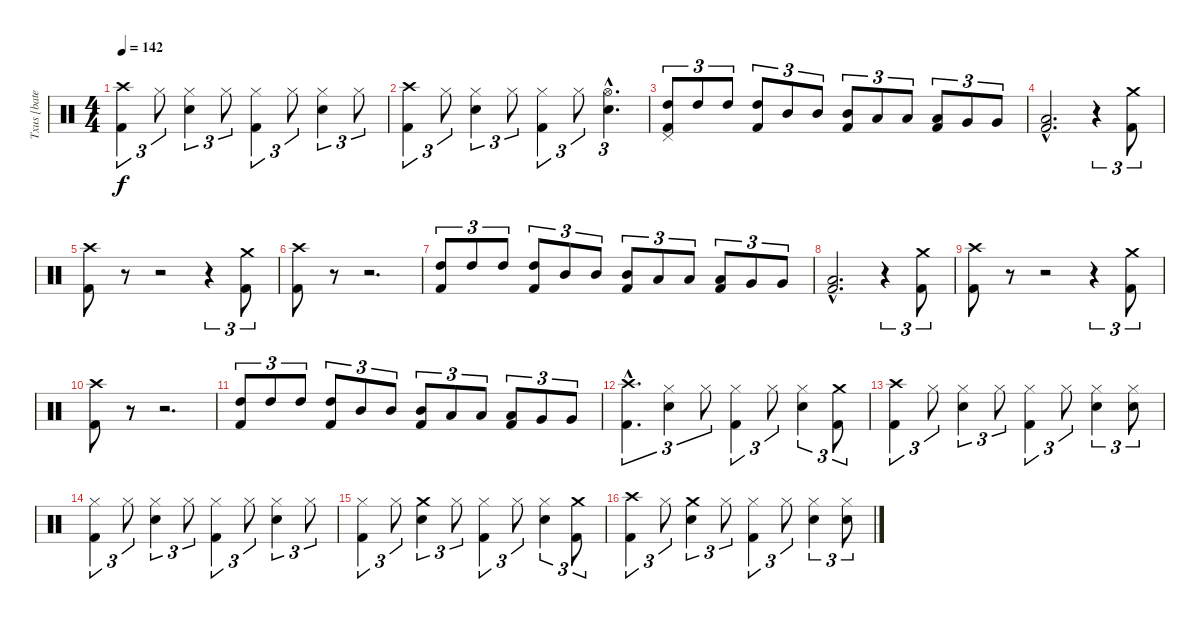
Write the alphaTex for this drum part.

\track ("Txus [bateria]" "Txus [bate") {instrument percussion}
\staff {score}
\articulation defaults
\ts (4 4)
\tempo 142
\clef neutral
\ks c
("Crash high (hit)" "Kick (hit) 2").4{tu (3 2) dy f} "Hi-Hat (closed)".8{tu (3 2)} ("Hi-Hat (closed)" "Snare (hit) 2").4{tu (3 2)} "Hi-Hat (closed)".8{tu (3 2)} ("Hi-Hat (closed)" "Kick (hit) 2").4{tu (3 2)} "Hi-Hat (closed)".8{tu (3 2)} ("Hi-Hat (closed)" "Snare (hit) 2").4{tu (3 2)} "Hi-Hat (closed)".8{tu (3 2)} |
("Crash high (hit)" "Kick (hit) 2").4{tu (3 2)} "Hi-Hat (closed)".8{tu (3 2)} ("Hi-Hat (closed)" "Snare (hit) 2").4{tu (3 2)} "Hi-Hat (closed)".8{tu (3 2)} ("Hi-Hat (closed)" "Kick (hit) 2").4{tu (3 2)} "Hi-Hat (closed)".8{tu (3 2)} ("Hi-Hat (open)"{hac} "Snare (hit) 2"{hac}).4{d tu (3 2)} |
("Pedal Hi-Hat (hit)" "High Tom (hit)" "Kick (hit) 2").8{tu (3 2)} "High Tom (hit)".8{tu (3 2)} "High Tom (hit)".8{tu (3 2)} ("High Tom (hit)" "Kick (hit) 2").8{tu (3 2)} "Mid Tom (hit)".8{tu (3 2)} "Mid Tom (hit)".8{tu (3 2)} ("Mid Tom (hit)" "Kick (hit) 2").8{tu (3 2)} "Low Tom (hit)".8{tu (3 2)} "Low Tom (hit)".8{tu (3 2)} ("Low Tom (hit)" "Kick (hit) 2").8{tu (3 2)} "Very Low Tom (hit)".8{tu (3 2)} "Very Low Tom (hit)".8{tu (3 2)} |
("Low Floor Tom (hit)"{hac} "Kick (hit) 2"{hac}).2{d} r.4{tu (3 2)} ("Crash medium (hit)" "Kick (hit) 2").8{tu (3 2)} |
("Crash high (hit)" "Kick (hit) 2").8 r.8{volume 0} r.2 r.4{tu (3 2)} ("Crash medium (hit)" "Kick (hit) 2").8{tu (3 2) volume 13} |
("Crash high (hit)" "Kick (hit) 2").8 r.8{volume 0} r.2{d} |
("High Tom (hit)" "Kick (hit) 2").8{tu (3 2) volume 13} "High Tom (hit)".8{tu (3 2)} "High Tom (hit)".8{tu (3 2)} ("High Tom (hit)" "Kick (hit) 2").8{tu (3 2)} "Mid Tom (hit)".8{tu (3 2)} "Mid Tom (hit)".8{tu (3 2)} ("Mid Tom (hit)" "Kick (hit) 2").8{tu (3 2)} "Low Tom (hit)".8{tu (3 2)} "Low Tom (hit)".8{tu (3 2)} ("Low Tom (hit)" "Kick (hit) 2").8{tu (3 2)} "Very Low Tom (hit)".8{tu (3 2)} "Very Low Tom (hit)".8{tu (3 2)} |
("Low Floor Tom (hit)"{hac} "Kick (hit) 2"{hac}).2{d} r.4{tu (3 2)} ("Crash medium (hit)" "Kick (hit) 2").8{tu (3 2)} |
("Crash high (hit)" "Kick (hit) 2").8 r.8{volume 0} r.2 r.4{tu (3 2)} ("Crash medium (hit)" "Kick (hit) 2").8{tu (3 2) volume 13} |
("Crash high (hit)" "Kick (hit) 2").8 r.8{volume 0} r.2{d} |
("High Tom (hit)" "Kick (hit) 2").8{tu (3 2) volume 13} "High Tom (hit)".8{tu (3 2)} "High Tom (hit)".8{tu (3 2)} ("High Tom (hit)" "Kick (hit) 2").8{tu (3 2)} "Mid Tom (hit)".8{tu (3 2)} "Mid Tom (hit)".8{tu (3 2)} ("Mid Tom (hit)" "Kick (hit) 2").8{tu (3 2)} "Low Tom (hit)".8{tu (3 2)} "Low Tom (hit)".8{tu (3 2)} ("Low Tom (hit)" "Kick (hit) 2").8{tu (3 2)} "Very Low Tom (hit)".8{tu (3 2)} "Very Low Tom (hit)".8{tu (3 2)} |
("Crash high (hit)"{hac} "Kick (hit) 2"{hac}).4{d tu (3 2)} ("Hi-Hat (closed)" "Snare (hit) 2").4{tu (3 2)} "Hi-Hat (closed)".8{tu (3 2)} ("Hi-Hat (closed)" "Kick (hit) 2").4{tu (3 2)} "Hi-Hat (closed)".8{tu (3 2)} ("Hi-Hat (closed)" "Snare (hit) 2").4{tu (3 2)} ("Crash medium (hit)" "Kick (hit) 2").8{tu (3 2)} |
("Crash high (hit)" "Kick (hit) 2").4{tu (3 2)} "Hi-Hat (closed)".8{tu (3 2)} ("Hi-Hat (closed)" "Snare (hit) 2").4{tu (3 2)} "Hi-Hat (closed)".8{tu (3 2)} ("Hi-Hat (closed)" "Kick (hit) 2").4{tu (3 2)} "Hi-Hat (closed)".8{tu (3 2)} ("Hi-Hat (closed)" "Snare (hit) 2").4{tu (3 2)} ("Hi-Hat (closed)" "Snare (hit) 2").8{tu (3 2)} |
("Hi-Hat (closed)" "Kick (hit) 2").4{tu (3 2)} "Hi-Hat (closed)".8{tu (3 2)} ("Hi-Hat (closed)" "Snare (hit) 2").4{tu (3 2)} "Hi-Hat (closed)".8{tu (3 2)} ("Hi-Hat (closed)" "Kick (hit) 2").4{tu (3 2)} "Hi-Hat (closed)".8{tu (3 2)} ("Hi-Hat (closed)" "Snare (hit) 2").4{tu (3 2)} "Hi-Hat (closed)".8{tu (3 2)} |
("Hi-Hat (closed)" "Kick (hit) 2").4{tu (3 2)} "Hi-Hat (closed)".8{tu (3 2)} ("Crash medium (hit)" "Snare (hit) 2").4{tu (3 2)} "Hi-Hat (closed)".8{tu (3 2)} ("Hi-Hat (closed)" "Kick (hit) 2").4{tu (3 2)} "Hi-Hat (closed)".8{tu (3 2)} ("Hi-Hat (closed)" "Snare (hit) 2").4{tu (3 2)} ("Crash medium (hit)" "Kick (hit) 2").8{tu (3 2)} |
("Crash high (hit)" "Kick (hit) 2").4{tu (3 2)} "Hi-Hat (closed)".8{tu (3 2)} ("Crash medium (hit)" "Snare (hit) 2").4{tu (3 2)} "Hi-Hat (closed)".8{tu (3 2)} ("Hi-Hat (closed)" "Kick (hit) 2").4{tu (3 2)} "Hi-Hat (closed)".8{tu (3 2)} ("Hi-Hat (closed)" "Snare (hit) 2").4{tu (3 2)} ("Hi-Hat (closed)" "Snare (hit) 2").8{tu (3 2)}
